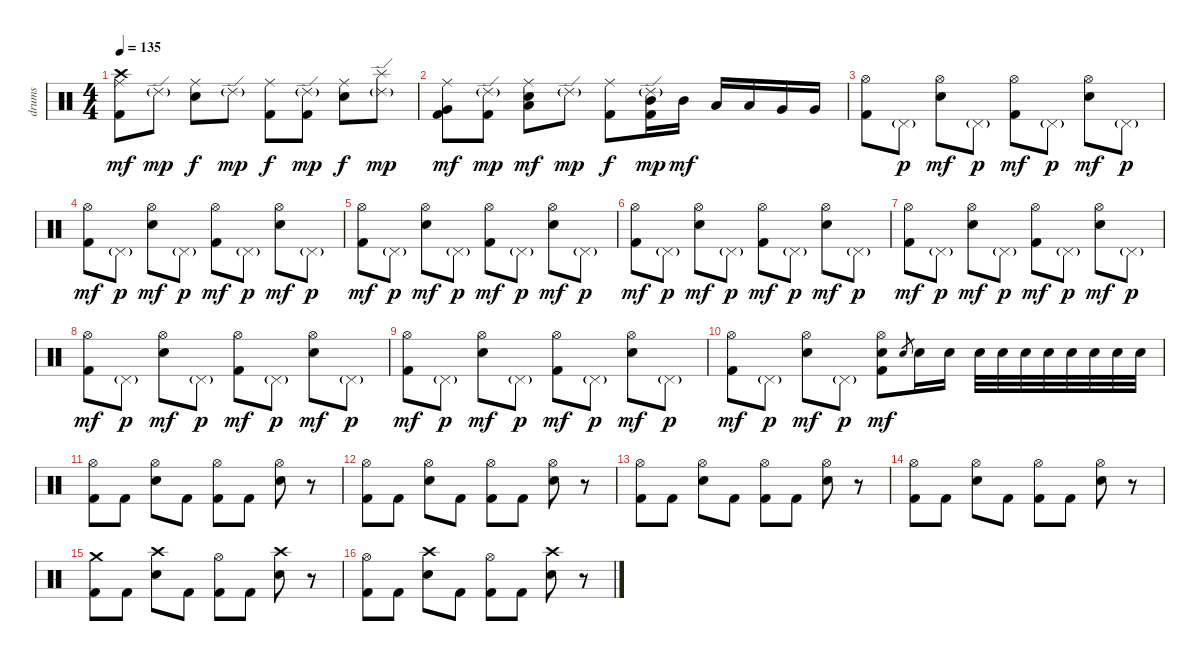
\track ("drums" "drums") {instrument percussion}
\staff {score}
\articulation defaults
\ts (4 4)
\tempo 135
\clef neutral
\ks c
("Crash high (hit)" "Ride (middle)" "Kick (hit) 2").8{dy mf} "Ride (edge) 2"{g}.8{dy mp} ("Ride (middle)" "Snare (hit) 2").8{dy f} "Ride (edge) 2"{g}.8{dy mp} ("Ride (middle)" "Kick (hit) 2").8{dy f} ("Ride (edge) 2"{g} "Kick (hit) 2").8{dy mp} ("Ride (middle)" "Snare (hit) 2").8{dy f} ("Splash (hit)" "Ride (edge) 2"{g}).8{dy mp} |
("Ride (middle)" "Very Low Tom (hit)" "Kick (hit) 2").8{dy mf} ("Ride (edge) 2"{g} "Kick (hit) 2").8{dy mp} ("Ride (middle)" "Snare (hit) 2" "Low Floor Tom (hit)").8{dy mf} "Ride (edge) 2"{g}.8{dy mp} ("Ride (middle)" "Kick (hit) 2").8{dy f} ("Ride (edge) 2"{g} "Mid Tom (hit)" "Kick (hit) 2").16{dy mp} "Mid Tom (hit)".16{dy mf} "Low Tom (hit)".16 "Low Tom (hit)".16 "Very Low Tom (hit)".16 "Very Low Tom (hit)".16 |
("Hi-Hat (open)" "Kick (hit) 2").8 "Pedal Hi-Hat (hit)"{g}.8{dy p} ("Hi-Hat (open)" "Snare (hit) 2").8{dy mf} "Pedal Hi-Hat (hit)"{g}.8{dy p} ("Hi-Hat (open)" "Kick (hit) 2").8{dy mf} "Pedal Hi-Hat (hit)"{g}.8{dy p} ("Hi-Hat (open)" "Snare (hit) 2").8{dy mf} "Pedal Hi-Hat (hit)"{g}.8{dy p} |
("Hi-Hat (open)" "Kick (hit) 2").8{dy mf} "Pedal Hi-Hat (hit)"{g}.8{dy p} ("Hi-Hat (open)" "Snare (hit) 2").8{dy mf} "Pedal Hi-Hat (hit)"{g}.8{dy p} ("Hi-Hat (open)" "Kick (hit) 2").8{dy mf} "Pedal Hi-Hat (hit)"{g}.8{dy p} ("Hi-Hat (open)" "Snare (hit) 2").8{dy mf} "Pedal Hi-Hat (hit)"{g}.8{dy p} |
("Hi-Hat (open)" "Kick (hit) 2").8{dy mf} "Pedal Hi-Hat (hit)"{g}.8{dy p} ("Hi-Hat (open)" "Snare (hit) 2").8{dy mf} "Pedal Hi-Hat (hit)"{g}.8{dy p} ("Hi-Hat (open)" "Kick (hit) 2").8{dy mf} "Pedal Hi-Hat (hit)"{g}.8{dy p} ("Hi-Hat (open)" "Snare (hit) 2").8{dy mf} "Pedal Hi-Hat (hit)"{g}.8{dy p} |
("Hi-Hat (open)" "Kick (hit) 2").8{dy mf} "Pedal Hi-Hat (hit)"{g}.8{dy p} ("Hi-Hat (open)" "Snare (hit) 2").8{dy mf} "Pedal Hi-Hat (hit)"{g}.8{dy p} ("Hi-Hat (open)" "Kick (hit) 2").8{dy mf} "Pedal Hi-Hat (hit)"{g}.8{dy p} ("Hi-Hat (open)" "Snare (hit) 2").8{dy mf} "Pedal Hi-Hat (hit)"{g}.8{dy p} |
("Hi-Hat (open)" "Kick (hit) 2").8{dy mf} "Pedal Hi-Hat (hit)"{g}.8{dy p} ("Hi-Hat (open)" "Snare (hit) 2").8{dy mf} "Pedal Hi-Hat (hit)"{g}.8{dy p} ("Hi-Hat (open)" "Kick (hit) 2").8{dy mf} "Pedal Hi-Hat (hit)"{g}.8{dy p} ("Hi-Hat (open)" "Snare (hit) 2").8{dy mf} "Pedal Hi-Hat (hit)"{g}.8{dy p} |
("Hi-Hat (open)" "Kick (hit) 2").8{dy mf} "Pedal Hi-Hat (hit)"{g}.8{dy p} ("Hi-Hat (open)" "Snare (hit) 2").8{dy mf} "Pedal Hi-Hat (hit)"{g}.8{dy p} ("Hi-Hat (open)" "Kick (hit) 2").8{dy mf} "Pedal Hi-Hat (hit)"{g}.8{dy p} ("Hi-Hat (open)" "Snare (hit) 2").8{dy mf} "Pedal Hi-Hat (hit)"{g}.8{dy p} |
("Hi-Hat (open)" "Kick (hit) 2").8{dy mf} "Pedal Hi-Hat (hit)"{g}.8{dy p} ("Hi-Hat (open)" "Snare (hit) 2").8{dy mf} "Pedal Hi-Hat (hit)"{g}.8{dy p} ("Hi-Hat (open)" "Kick (hit) 2").8{dy mf} "Pedal Hi-Hat (hit)"{g}.8{dy p} ("Hi-Hat (open)" "Snare (hit) 2").8{dy mf} "Pedal Hi-Hat (hit)"{g}.8{dy p} |
("Hi-Hat (open)" "Kick (hit) 2").8{dy mf} "Pedal Hi-Hat (hit)"{g}.8{dy p} ("Hi-Hat (open)" "Snare (hit) 2").8{dy mf} "Pedal Hi-Hat (hit)"{g}.8{dy p} ("Hi-Hat (open)" "Snare (hit) 2" "Kick (hit) 2").8{dy mf} "Snare (hit) 2"{h}.8{gr} "Snare (hit) 2".16 "Snare (hit) 2".16 "Snare (hit) 2".32 "Snare (hit) 2".32 "Snare (hit) 2".32 "Snare (hit) 2".32 "Snare (hit) 2".32 "Snare (hit) 2".32 "Snare (hit) 2".32 "Snare (hit) 2".32 |
("Hi-Hat (open)" "Kick (hit) 2").8 "Kick (hit) 2".8 ("Hi-Hat (open)" "Snare (hit) 2").8 "Kick (hit) 2".8 ("Hi-Hat (open)" "Kick (hit) 2").8 "Kick (hit) 2".8 ("Hi-Hat (open)" "Snare (hit) 2").8 r.8 |
("Hi-Hat (open)" "Kick (hit) 2").8 "Kick (hit) 2".8 ("Hi-Hat (open)" "Snare (hit) 2").8 "Kick (hit) 2".8 ("Hi-Hat (open)" "Kick (hit) 2").8 "Kick (hit) 2".8 ("Hi-Hat (open)" "Snare (hit) 2").8 r.8 |
("Hi-Hat (open)" "Kick (hit) 2").8 "Kick (hit) 2".8 ("Hi-Hat (open)" "Snare (hit) 2").8 "Kick (hit) 2".8 ("Hi-Hat (open)" "Kick (hit) 2").8 "Kick (hit) 2".8 ("Hi-Hat (open)" "Snare (hit) 2").8 r.8 |
("Hi-Hat (open)" "Kick (hit) 2").8 "Kick (hit) 2".8 ("Hi-Hat (open)" "Snare (hit) 2").8 "Kick (hit) 2".8 ("Hi-Hat (open)" "Kick (hit) 2").8 "Kick (hit) 2".8 ("Hi-Hat (open)" "Snare (hit) 2").8 r.8 |
("Crash medium (hit)" "Kick (hit) 2").8 "Kick (hit) 2".8 ("Crash high (hit)" "Snare (hit) 2").8 "Kick (hit) 2".8 ("Hi-Hat (open)" "Kick (hit) 2").8 "Kick (hit) 2".8 ("Crash high (hit)" "Snare (hit) 2").8 r.8 |
("Hi-Hat (open)" "Kick (hit) 2").8 "Kick (hit) 2".8 ("Crash high (hit)" "Snare (hit) 2").8 "Kick (hit) 2".8 ("Hi-Hat (open)" "Kick (hit) 2").8 "Kick (hit) 2".8 ("Crash high (hit)" "Snare (hit) 2").8 r.8
